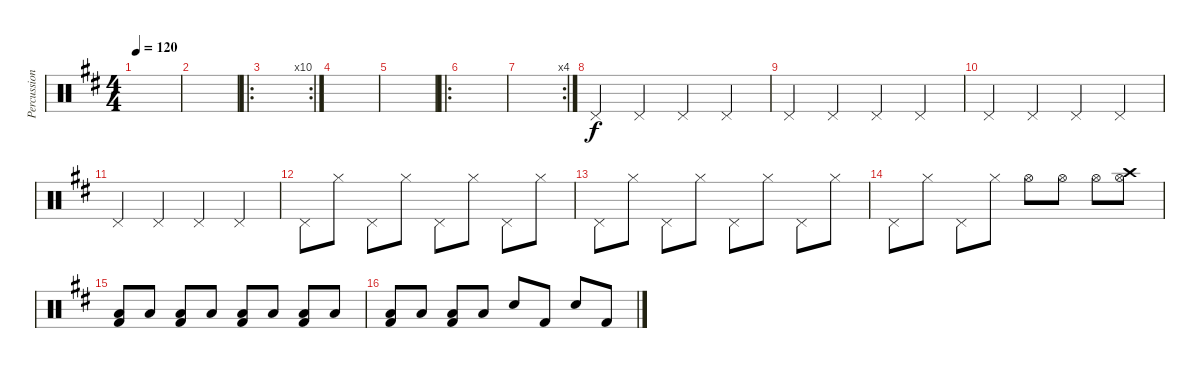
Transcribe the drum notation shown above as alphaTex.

\track ("Percussion" "Percussion") {instrument percussion}
\staff {score}
\articulation defaults
\ts (4 4)
\tempo 120
\clef neutral
\ks d
|
|
\ro
\rc 10
|
|
|
\ro
|
\rc 4
|
"Pedal Hi-Hat (hit)".4 "Pedal Hi-Hat (hit)".4 "Pedal Hi-Hat (hit)".4 "Pedal Hi-Hat (hit)".4 |
"Pedal Hi-Hat (hit)".4 "Pedal Hi-Hat (hit)".4 "Pedal Hi-Hat (hit)".4 "Pedal Hi-Hat (hit)".4 |
"Pedal Hi-Hat (hit)".4 "Pedal Hi-Hat (hit)".4 "Pedal Hi-Hat (hit)".4 "Pedal Hi-Hat (hit)".4 |
"Pedal Hi-Hat (hit)".4 "Pedal Hi-Hat (hit)".4 "Pedal Hi-Hat (hit)".4 "Pedal Hi-Hat (hit)".4 |
"Pedal Hi-Hat (hit)".8 "Hi-Hat (closed)".8 "Pedal Hi-Hat (hit)".8 "Hi-Hat (closed)".8 "Pedal Hi-Hat (hit)".8 "Hi-Hat (closed)".8 "Pedal Hi-Hat (hit)".8 "Hi-Hat (closed)".8 |
"Pedal Hi-Hat (hit)".8 "Hi-Hat (closed)".8 "Pedal Hi-Hat (hit)".8 "Hi-Hat (closed)".8 "Pedal Hi-Hat (hit)".8 "Hi-Hat (closed)".8 "Pedal Hi-Hat (hit)".8 "Hi-Hat (closed)".8 |
"Pedal Hi-Hat (hit)".8 "Hi-Hat (closed)".8 "Pedal Hi-Hat (hit)".8 "Hi-Hat (closed)".8 "Hi-Hat (open)".8 "Hi-Hat (open)".8 "Hi-Hat (open)".8 ("Hi-Hat (open)" "Crash high (hit)").8 |
("Low Floor Tom (hit)" "Kick (hit) 2").8 "Low Floor Tom (hit)".8 ("Low Floor Tom (hit)" "Kick (hit) 2").8 "Low Floor Tom (hit)".8 ("Low Floor Tom (hit)" "Kick (hit) 2").8 "Low Floor Tom (hit)".8 ("Low Floor Tom (hit)" "Kick (hit) 2").8 "Low Floor Tom (hit)".8 |
("Low Floor Tom (hit)" "Kick (hit) 2").8 "Low Floor Tom (hit)".8 ("Low Floor Tom (hit)" "Kick (hit) 2").8 "Low Floor Tom (hit)".8 "Snare (hit) 2".8 "Kick (hit) 2".8 "Snare (hit) 2".8 "Kick (hit) 2".8
